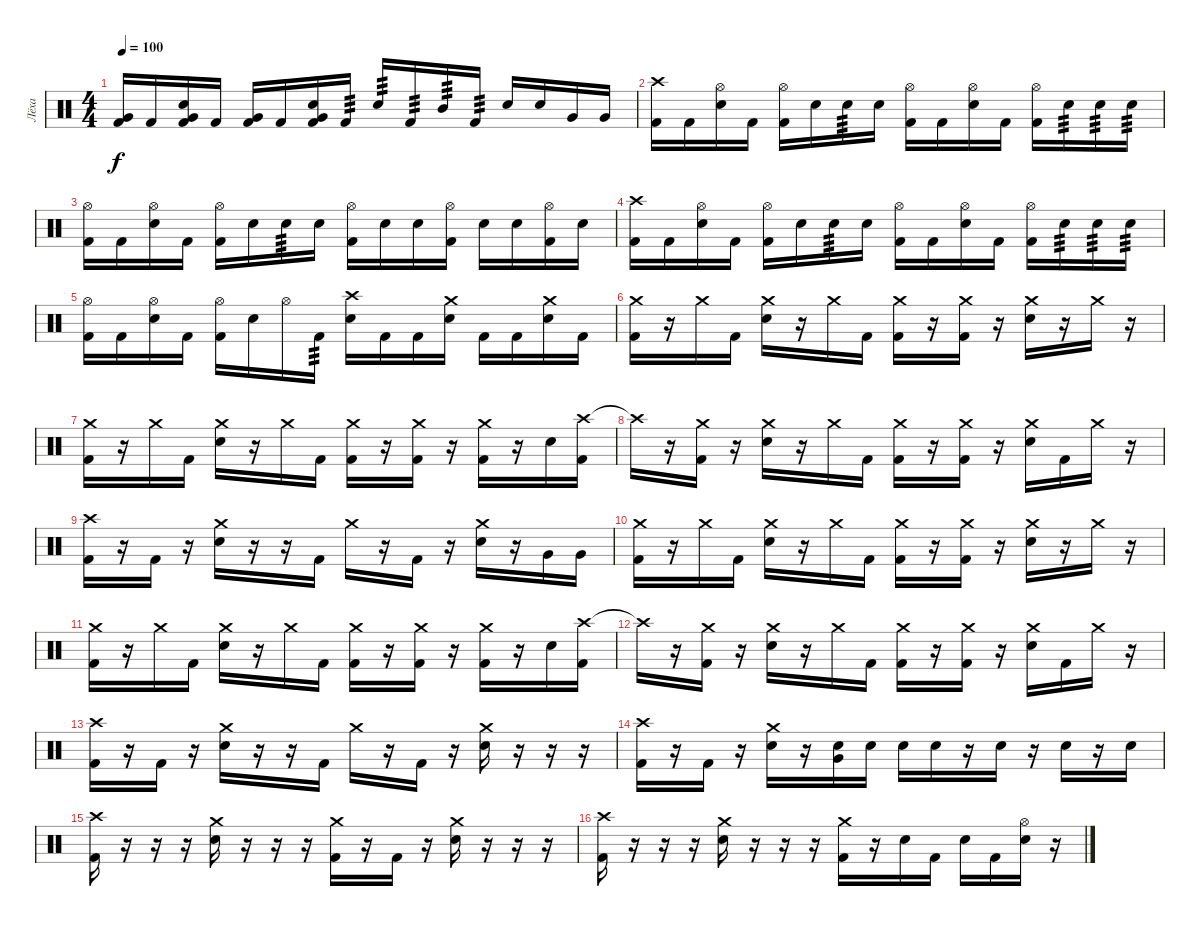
\track ("Лёха" "Лёха") {instrument percussion}
\staff {score}
\articulation defaults
\ts (4 4)
\tempo 100
\clef neutral
\ks c
("Very Low Tom (hit)" "Kick (hit) 2").16{dy f} "Kick (hit) 2".16 ("Electric Snare (hit)" "Very Low Tom (hit)" "Kick (hit) 2").16 "Kick (hit) 2".16 ("Very Low Tom (hit)" "Kick (hit) 2").16 "Kick (hit) 2".16 ("Electric Snare (hit)" "Very Low Tom (hit)" "Kick (hit) 2").16 "Kick (hit) 2".16{tp 3} "Electric Snare (hit)".16{tp 3} "Kick (hit) 2".16{tp 3} "Mid Tom (hit)".16{tp 3} "Kick (hit) 2".16{tp 3} "Electric Snare (hit)".16 "Electric Snare (hit)".16 "Very Low Tom (hit)".16 "Very Low Tom (hit)".16 |
("Crash high (hit)" "Kick (hit) 2").16 "Kick (hit) 2".16 ("Hi-Hat (open)" "Electric Snare (hit)").16 "Kick (hit) 2".16 ("Hi-Hat (open)" "Kick (hit) 2").16 "Electric Snare (hit)".16 "Electric Snare (hit)".16{tp 3} "Electric Snare (hit)".16 ("Hi-Hat (open)" "Kick (hit) 2").16 "Kick (hit) 2".16 ("Hi-Hat (open)" "Electric Snare (hit)").16 "Kick (hit) 2".16 ("Hi-Hat (open)" "Kick (hit) 2").16 "Electric Snare (hit)".16{tp 3} "Electric Snare (hit)".16{tp 3} "Electric Snare (hit)".16{tp 3} |
("Hi-Hat (open)" "Kick (hit) 2").16 "Kick (hit) 2".16 ("Hi-Hat (open)" "Electric Snare (hit)").16 "Kick (hit) 2".16 ("Hi-Hat (open)" "Kick (hit) 2").16 "Electric Snare (hit)".16 "Electric Snare (hit)".16{tp 3} "Electric Snare (hit)".16 ("Hi-Hat (open)" "Kick (hit) 2").16 "Electric Snare (hit)".16 "Electric Snare (hit)".16 ("Hi-Hat (open)" "Kick (hit) 2").16 "Electric Snare (hit)".16 "Electric Snare (hit)".16 ("Hi-Hat (open)" "Kick (hit) 2").16 "Electric Snare (hit)".16 |
("Crash high (hit)" "Kick (hit) 2").16 "Kick (hit) 2".16 ("Hi-Hat (open)" "Electric Snare (hit)").16 "Kick (hit) 2".16 ("Hi-Hat (open)" "Kick (hit) 2").16 "Electric Snare (hit)".16 "Electric Snare (hit)".16{tp 3} "Electric Snare (hit)".16 ("Hi-Hat (open)" "Kick (hit) 2").16 "Kick (hit) 2".16 ("Hi-Hat (open)" "Electric Snare (hit)").16 "Kick (hit) 2".16 ("Hi-Hat (open)" "Kick (hit) 2").16 "Electric Snare (hit)".16{tp 3} "Electric Snare (hit)".16{tp 3} "Electric Snare (hit)".16{tp 3} |
("Hi-Hat (open)" "Kick (hit) 2").16 "Kick (hit) 2".16 ("Hi-Hat (open)" "Electric Snare (hit)").16 "Kick (hit) 2".16 ("Hi-Hat (open)" "Kick (hit) 2").16 "Electric Snare (hit)".16 "Hi-Hat (open)".16 "Kick (hit) 2".16{tp 3} ("Crash high (hit)" "Electric Snare (hit)").16 "Kick (hit) 2".16 "Kick (hit) 2".16 ("Crash medium (hit)" "Electric Snare (hit)").16 "Kick (hit) 2".16 "Kick (hit) 2".16 ("Crash medium (hit)" "Electric Snare (hit)").16 "Kick (hit) 2".16 |
("Crash medium (hit)" "Kick (hit) 2").16 r.16 "Crash medium (hit)".16 "Kick (hit) 2".16 ("Crash medium (hit)" "Electric Snare (hit)").16 r.16 "Crash medium (hit)".16 "Kick (hit) 2".16 ("Crash medium (hit)" "Kick (hit) 2").16 r.16 ("Crash medium (hit)" "Kick (hit) 2").16 r.16 ("Crash medium (hit)" "Electric Snare (hit)").16 r.16 "Crash medium (hit)".16 r.16 |
("Crash medium (hit)" "Kick (hit) 2").16 r.16 "Crash medium (hit)".16 "Kick (hit) 2".16 ("Crash medium (hit)" "Electric Snare (hit)").16 r.16 "Crash medium (hit)".16 "Kick (hit) 2".16 ("Crash medium (hit)" "Kick (hit) 2").16 r.16 ("Crash medium (hit)" "Kick (hit) 2").16 r.16 ("Crash medium (hit)" "Kick (hit) 2").16 r.16 "Electric Snare (hit)".16 ("Crash high (hit)" "Kick (hit) 2").16 |
"Crash high (hit)"{t}.16 r.16 ("Crash medium (hit)" "Kick (hit) 2").16 r.16 ("Crash medium (hit)" "Electric Snare (hit)").16 r.16 "Crash medium (hit)".16 "Kick (hit) 2".16 ("Crash medium (hit)" "Kick (hit) 2").16 r.16 ("Crash medium (hit)" "Kick (hit) 2").16 r.16 ("Crash medium (hit)" "Electric Snare (hit)").16 "Kick (hit) 2".16 "Crash medium (hit)".16 r.16 |
("Crash high (hit)" "Kick (hit) 2").16 r.16 "Kick (hit) 2".16 r.16 ("Crash medium (hit)" "Electric Snare (hit)").16 r.16 r.16 "Kick (hit) 2".16 "Crash medium (hit)".16 r.16 "Kick (hit) 2".16 r.16 ("Crash medium (hit)" "Electric Snare (hit)").16 r.16 "Very Low Tom (hit)".16 "Very Low Tom (hit)".16 |
("Crash medium (hit)" "Kick (hit) 2").16 r.16 "Crash medium (hit)".16 "Kick (hit) 2".16 ("Crash medium (hit)" "Electric Snare (hit)").16 r.16 "Crash medium (hit)".16 "Kick (hit) 2".16 ("Crash medium (hit)" "Kick (hit) 2").16 r.16 ("Crash medium (hit)" "Kick (hit) 2").16 r.16 ("Crash medium (hit)" "Electric Snare (hit)").16 r.16 "Crash medium (hit)".16 r.16 |
("Crash medium (hit)" "Kick (hit) 2").16 r.16 "Crash medium (hit)".16 "Kick (hit) 2".16 ("Crash medium (hit)" "Electric Snare (hit)").16 r.16 "Crash medium (hit)".16 "Kick (hit) 2".16 ("Crash medium (hit)" "Kick (hit) 2").16 r.16 ("Crash medium (hit)" "Kick (hit) 2").16 r.16 ("Crash medium (hit)" "Kick (hit) 2").16 r.16 "Electric Snare (hit)".16 ("Crash high (hit)" "Kick (hit) 2").16 |
"Crash high (hit)"{t}.16 r.16 ("Crash medium (hit)" "Kick (hit) 2").16 r.16 ("Crash medium (hit)" "Electric Snare (hit)").16 r.16 "Crash medium (hit)".16 "Kick (hit) 2".16 ("Crash medium (hit)" "Kick (hit) 2").16 r.16 ("Crash medium (hit)" "Kick (hit) 2").16 r.16 ("Crash medium (hit)" "Electric Snare (hit)").16 "Kick (hit) 2".16 "Crash medium (hit)".16 r.16 |
("Crash high (hit)" "Kick (hit) 2").16 r.16 "Kick (hit) 2".16 r.16 ("Crash medium (hit)" "Electric Snare (hit)").16 r.16 r.16 "Kick (hit) 2".16 "Crash medium (hit)".16 r.16 "Kick (hit) 2".16 r.16 ("Crash medium (hit)" "Electric Snare (hit)").16 r.16 r.16 r.16 |
("Crash high (hit)" "Kick (hit) 2").16 r.16 "Kick (hit) 2".16 r.16 ("Crash medium (hit)" "Electric Snare (hit)").16 r.16 ("Electric Snare (hit)" "Very Low Tom (hit)").16 "Electric Snare (hit)".16 "Electric Snare (hit)".16 "Electric Snare (hit)".16 r.16 "Electric Snare (hit)".16 r.16 "Electric Snare (hit)".16 r.16 "Electric Snare (hit)".16 |
("Crash high (hit)" "Kick (hit) 2").16 r.16 r.16 r.16 ("Crash medium (hit)" "Electric Snare (hit)").16 r.16 r.16 r.16 ("Crash medium (hit)" "Kick (hit) 2").16 r.16 "Kick (hit) 2".16 r.16 ("Crash medium (hit)" "Electric Snare (hit)").16 r.16 r.16 r.16 |
("Crash high (hit)" "Kick (hit) 2").16 r.16 r.16 r.16 ("Crash medium (hit)" "Electric Snare (hit)").16 r.16 r.16 r.16 ("Crash medium (hit)" "Kick (hit) 2").16 r.16 "Electric Snare (hit)".16 "Kick (hit) 2".16 "Electric Snare (hit)".16 "Kick (hit) 2".16 ("Hi-Hat (open)" "Electric Snare (hit)").16 r.16
